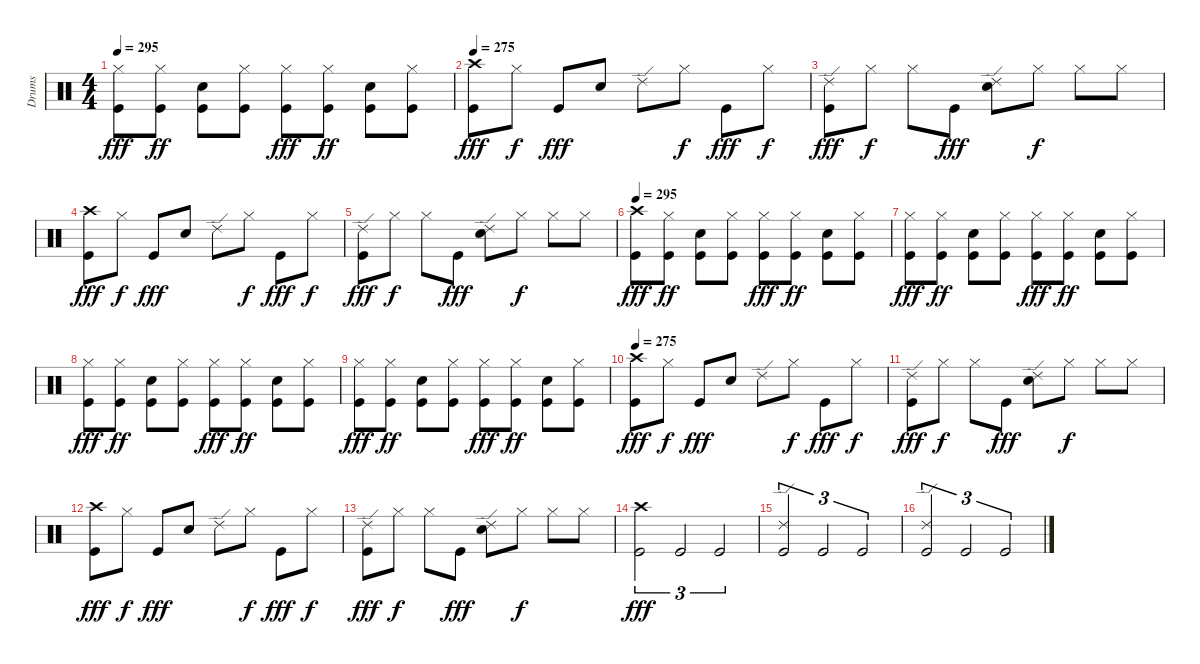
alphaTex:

\track ("Drums" "Drums") {instrument percussion}
\staff {score}
\articulation defaults
\ts (4 4)
\tempo 295
\clef neutral
\ks c
("Hi-Hat (closed)" "Kick (hit)").8{dy fff} ("Hi-Hat (closed)" "Kick (hit)").8{dy ff} ("Snare (hit) 2" "Kick (hit)").8 ("Hi-Hat (closed)" "Kick (hit)").8 ("Hi-Hat (closed)" "Kick (hit)").8{dy fff} ("Hi-Hat (closed)" "Kick (hit)").8{dy ff} ("Snare (hit) 2" "Kick (hit)").8 ("Hi-Hat (closed)" "Kick (hit)").8 |
\tempo 275
("Crash high (hit)" "Kick (hit)").8{dy fff} "Hi-Hat (closed)".8{dy f} "Kick (hit)".8{dy fff} "Snare (hit) 2".8 "Ride (edge) 2".8 "Hi-Hat (closed)".8{dy f} "Kick (hit)".8{dy fff} "Hi-Hat (closed)".8{dy f} |
("Ride (edge) 2" "Kick (hit)").8{dy fff} "Hi-Hat (closed)".8{dy f} "Hi-Hat (closed)".8 "Kick (hit)".8{dy fff} ("Ride (edge) 2" "Snare (hit) 2").8 "Hi-Hat (closed)".8{dy f} "Hi-Hat (closed)".8 "Hi-Hat (closed)".8 |
("Crash high (hit)" "Kick (hit)").8{dy fff} "Hi-Hat (closed)".8{dy f} "Kick (hit)".8{dy fff} "Snare (hit) 2".8 "Ride (edge) 2".8 "Hi-Hat (closed)".8{dy f} "Kick (hit)".8{dy fff} "Hi-Hat (closed)".8{dy f} |
("Ride (edge) 2" "Kick (hit)").8{dy fff} "Hi-Hat (closed)".8{dy f} "Hi-Hat (closed)".8 "Kick (hit)".8{dy fff} ("Ride (edge) 2" "Snare (hit) 2").8 "Hi-Hat (closed)".8{dy f} "Hi-Hat (closed)".8 "Hi-Hat (closed)".8 |
\tempo 295
("Crash high (hit)" "Kick (hit)").8{dy fff} ("Hi-Hat (closed)" "Kick (hit)").8{dy ff} ("Snare (hit) 2" "Kick (hit)").8 ("Hi-Hat (closed)" "Kick (hit)").8 ("Hi-Hat (closed)" "Kick (hit)").8{dy fff} ("Hi-Hat (closed)" "Kick (hit)").8{dy ff} ("Snare (hit) 2" "Kick (hit)").8 ("Hi-Hat (closed)" "Kick (hit)").8 |
("Hi-Hat (closed)" "Kick (hit)").8{dy fff} ("Hi-Hat (closed)" "Kick (hit)").8{dy ff} ("Snare (hit) 2" "Kick (hit)").8 ("Hi-Hat (closed)" "Kick (hit)").8 ("Hi-Hat (closed)" "Kick (hit)").8{dy fff} ("Hi-Hat (closed)" "Kick (hit)").8{dy ff} ("Snare (hit) 2" "Kick (hit)").8 ("Hi-Hat (closed)" "Kick (hit)").8 |
("Hi-Hat (closed)" "Kick (hit)").8{dy fff} ("Hi-Hat (closed)" "Kick (hit)").8{dy ff} ("Snare (hit) 2" "Kick (hit)").8 ("Hi-Hat (closed)" "Kick (hit)").8 ("Hi-Hat (closed)" "Kick (hit)").8{dy fff} ("Hi-Hat (closed)" "Kick (hit)").8{dy ff} ("Snare (hit) 2" "Kick (hit)").8 ("Hi-Hat (closed)" "Kick (hit)").8 |
("Hi-Hat (closed)" "Kick (hit)").8{dy fff} ("Hi-Hat (closed)" "Kick (hit)").8{dy ff} ("Snare (hit) 2" "Kick (hit)").8 ("Hi-Hat (closed)" "Kick (hit)").8 ("Hi-Hat (closed)" "Kick (hit)").8{dy fff} ("Hi-Hat (closed)" "Kick (hit)").8{dy ff} ("Snare (hit) 2" "Kick (hit)").8 ("Hi-Hat (closed)" "Kick (hit)").8 |
\tempo 275
("Crash high (hit)" "Kick (hit)").8{dy fff} "Hi-Hat (closed)".8{dy f} "Kick (hit)".8{dy fff} "Snare (hit) 2".8 "Ride (edge) 2".8 "Hi-Hat (closed)".8{dy f} "Kick (hit)".8{dy fff} "Hi-Hat (closed)".8{dy f} |
("Ride (edge) 2" "Kick (hit)").8{dy fff} "Hi-Hat (closed)".8{dy f} "Hi-Hat (closed)".8 "Kick (hit)".8{dy fff} ("Ride (edge) 2" "Snare (hit) 2").8 "Hi-Hat (closed)".8{dy f} "Hi-Hat (closed)".8 "Hi-Hat (closed)".8 |
("Crash high (hit)" "Kick (hit)").8{dy fff} "Hi-Hat (closed)".8{dy f} "Kick (hit)".8{dy fff} "Snare (hit) 2".8 "Ride (edge) 2".8 "Hi-Hat (closed)".8{dy f} "Kick (hit)".8{dy fff} "Hi-Hat (closed)".8{dy f} |
("Ride (edge) 2" "Kick (hit)").8{dy fff} "Hi-Hat (closed)".8{dy f} "Hi-Hat (closed)".8 "Kick (hit)".8{dy fff} ("Ride (edge) 2" "Snare (hit) 2").8 "Hi-Hat (closed)".8{dy f} "Hi-Hat (closed)".8 "Hi-Hat (closed)".8 |
("Crash high (hit)" "Kick (hit)").2{tu (3 2) dy fff} "Kick (hit)".2{tu (3 2)} "Kick (hit)".2{tu (3 2)} |
("Ride (edge) 2" "Kick (hit)").2{tu (3 2)} "Kick (hit)".2{tu (3 2)} "Kick (hit)".2{tu (3 2)} |
("Ride (edge) 2" "Kick (hit)").2{tu (3 2)} "Kick (hit)".2{tu (3 2)} "Kick (hit)".2{tu (3 2)}
